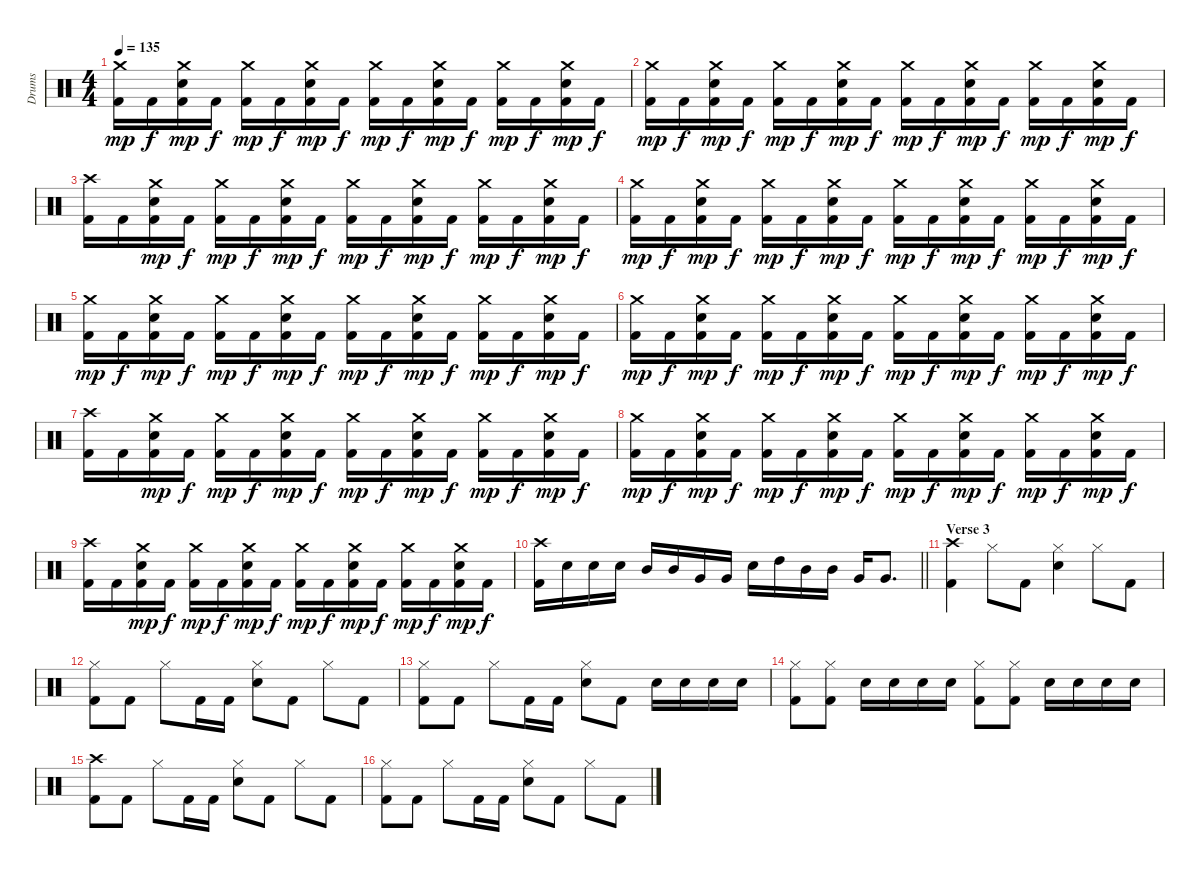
\track ("Drums" "Drums") {instrument percussion}
\staff {score}
\articulation defaults
\ts (4 4)
\tempo 135
\clef neutral
\ks c
("Crash medium (hit)" "Kick (hit) 2").16{dy mp} "Kick (hit) 2".16{dy f} ("Crash medium (hit)" "Snare (hit) 2" "Kick (hit) 2").16{dy mp} "Kick (hit) 2".16{dy f} ("Crash medium (hit)" "Kick (hit) 2").16{dy mp} "Kick (hit) 2".16{dy f} ("Crash medium (hit)" "Snare (hit) 2" "Kick (hit) 2").16{dy mp} "Kick (hit) 2".16{dy f} ("Crash medium (hit)" "Kick (hit) 2").16{dy mp} "Kick (hit) 2".16{dy f} ("Crash medium (hit)" "Snare (hit) 2" "Kick (hit) 2").16{dy mp} "Kick (hit) 2".16{dy f} ("Crash medium (hit)" "Kick (hit) 2").16{dy mp} "Kick (hit) 2".16{dy f} ("Crash medium (hit)" "Snare (hit) 2" "Kick (hit) 2").16{dy mp} "Kick (hit) 2".16{dy f} |
("Crash medium (hit)" "Kick (hit) 2").16{dy mp} "Kick (hit) 2".16{dy f} ("Crash medium (hit)" "Snare (hit) 2" "Kick (hit) 2").16{dy mp} "Kick (hit) 2".16{dy f} ("Crash medium (hit)" "Kick (hit) 2").16{dy mp} "Kick (hit) 2".16{dy f} ("Crash medium (hit)" "Snare (hit) 2" "Kick (hit) 2").16{dy mp} "Kick (hit) 2".16{dy f} ("Crash medium (hit)" "Kick (hit) 2").16{dy mp} "Kick (hit) 2".16{dy f} ("Crash medium (hit)" "Snare (hit) 2" "Kick (hit) 2").16{dy mp} "Kick (hit) 2".16{dy f} ("Crash medium (hit)" "Kick (hit) 2").16{dy mp} "Kick (hit) 2".16{dy f} ("Crash medium (hit)" "Snare (hit) 2" "Kick (hit) 2").16{dy mp} "Kick (hit) 2".16{dy f} |
("Crash high (hit)" "Kick (hit) 2").16 "Kick (hit) 2".16 ("Crash medium (hit)" "Snare (hit) 2" "Kick (hit) 2").16{dy mp} "Kick (hit) 2".16{dy f} ("Crash medium (hit)" "Kick (hit) 2").16{dy mp} "Kick (hit) 2".16{dy f} ("Crash medium (hit)" "Snare (hit) 2" "Kick (hit) 2").16{dy mp} "Kick (hit) 2".16{dy f} ("Crash medium (hit)" "Kick (hit) 2").16{dy mp} "Kick (hit) 2".16{dy f} ("Crash medium (hit)" "Snare (hit) 2" "Kick (hit) 2").16{dy mp} "Kick (hit) 2".16{dy f} ("Crash medium (hit)" "Kick (hit) 2").16{dy mp} "Kick (hit) 2".16{dy f} ("Crash medium (hit)" "Snare (hit) 2" "Kick (hit) 2").16{dy mp} "Kick (hit) 2".16{dy f} |
("Crash medium (hit)" "Kick (hit) 2").16{dy mp} "Kick (hit) 2".16{dy f} ("Crash medium (hit)" "Snare (hit) 2" "Kick (hit) 2").16{dy mp} "Kick (hit) 2".16{dy f} ("Crash medium (hit)" "Kick (hit) 2").16{dy mp} "Kick (hit) 2".16{dy f} ("Crash medium (hit)" "Snare (hit) 2" "Kick (hit) 2").16{dy mp} "Kick (hit) 2".16{dy f} ("Crash medium (hit)" "Kick (hit) 2").16{dy mp} "Kick (hit) 2".16{dy f} ("Crash medium (hit)" "Snare (hit) 2" "Kick (hit) 2").16{dy mp} "Kick (hit) 2".16{dy f} ("Crash medium (hit)" "Kick (hit) 2").16{dy mp} "Kick (hit) 2".16{dy f} ("Crash medium (hit)" "Snare (hit) 2" "Kick (hit) 2").16{dy mp} "Kick (hit) 2".16{dy f} |
("Crash medium (hit)" "Kick (hit) 2").16{dy mp} "Kick (hit) 2".16{dy f} ("Crash medium (hit)" "Snare (hit) 2" "Kick (hit) 2").16{dy mp} "Kick (hit) 2".16{dy f} ("Crash medium (hit)" "Kick (hit) 2").16{dy mp} "Kick (hit) 2".16{dy f} ("Crash medium (hit)" "Snare (hit) 2" "Kick (hit) 2").16{dy mp} "Kick (hit) 2".16{dy f} ("Crash medium (hit)" "Kick (hit) 2").16{dy mp} "Kick (hit) 2".16{dy f} ("Crash medium (hit)" "Snare (hit) 2" "Kick (hit) 2").16{dy mp} "Kick (hit) 2".16{dy f} ("Crash medium (hit)" "Kick (hit) 2").16{dy mp} "Kick (hit) 2".16{dy f} ("Crash medium (hit)" "Snare (hit) 2" "Kick (hit) 2").16{dy mp} "Kick (hit) 2".16{dy f} |
("Crash medium (hit)" "Kick (hit) 2").16{dy mp} "Kick (hit) 2".16{dy f} ("Crash medium (hit)" "Snare (hit) 2" "Kick (hit) 2").16{dy mp} "Kick (hit) 2".16{dy f} ("Crash medium (hit)" "Kick (hit) 2").16{dy mp} "Kick (hit) 2".16{dy f} ("Crash medium (hit)" "Snare (hit) 2" "Kick (hit) 2").16{dy mp} "Kick (hit) 2".16{dy f} ("Crash medium (hit)" "Kick (hit) 2").16{dy mp} "Kick (hit) 2".16{dy f} ("Crash medium (hit)" "Snare (hit) 2" "Kick (hit) 2").16{dy mp} "Kick (hit) 2".16{dy f} ("Crash medium (hit)" "Kick (hit) 2").16{dy mp} "Kick (hit) 2".16{dy f} ("Crash medium (hit)" "Snare (hit) 2" "Kick (hit) 2").16{dy mp} "Kick (hit) 2".16{dy f} |
("Crash high (hit)" "Kick (hit) 2").16 "Kick (hit) 2".16 ("Crash medium (hit)" "Snare (hit) 2" "Kick (hit) 2").16{dy mp} "Kick (hit) 2".16{dy f} ("Crash medium (hit)" "Kick (hit) 2").16{dy mp} "Kick (hit) 2".16{dy f} ("Crash medium (hit)" "Snare (hit) 2" "Kick (hit) 2").16{dy mp} "Kick (hit) 2".16{dy f} ("Crash medium (hit)" "Kick (hit) 2").16{dy mp} "Kick (hit) 2".16{dy f} ("Crash medium (hit)" "Snare (hit) 2" "Kick (hit) 2").16{dy mp} "Kick (hit) 2".16{dy f} ("Crash medium (hit)" "Kick (hit) 2").16{dy mp} "Kick (hit) 2".16{dy f} ("Crash medium (hit)" "Snare (hit) 2" "Kick (hit) 2").16{dy mp} "Kick (hit) 2".16{dy f} |
("Crash medium (hit)" "Kick (hit) 2").16{dy mp} "Kick (hit) 2".16{dy f} ("Crash medium (hit)" "Snare (hit) 2" "Kick (hit) 2").16{dy mp} "Kick (hit) 2".16{dy f} ("Crash medium (hit)" "Kick (hit) 2").16{dy mp} "Kick (hit) 2".16{dy f} ("Crash medium (hit)" "Snare (hit) 2" "Kick (hit) 2").16{dy mp} "Kick (hit) 2".16{dy f} ("Crash medium (hit)" "Kick (hit) 2").16{dy mp} "Kick (hit) 2".16{dy f} ("Crash medium (hit)" "Snare (hit) 2" "Kick (hit) 2").16{dy mp} "Kick (hit) 2".16{dy f} ("Crash medium (hit)" "Kick (hit) 2").16{dy mp} "Kick (hit) 2".16{dy f} ("Crash medium (hit)" "Snare (hit) 2" "Kick (hit) 2").16{dy mp} "Kick (hit) 2".16{dy f} |
("Crash high (hit)" "Kick (hit) 2").16 "Kick (hit) 2".16 ("Crash medium (hit)" "Snare (hit) 2" "Kick (hit) 2").16{dy mp} "Kick (hit) 2".16{dy f} ("Crash medium (hit)" "Kick (hit) 2").16{dy mp} "Kick (hit) 2".16{dy f} ("Crash medium (hit)" "Snare (hit) 2" "Kick (hit) 2").16{dy mp} "Kick (hit) 2".16{dy f} ("Crash medium (hit)" "Kick (hit) 2").16{dy mp} "Kick (hit) 2".16{dy f} ("Crash medium (hit)" "Snare (hit) 2" "Kick (hit) 2").16{dy mp} "Kick (hit) 2".16{dy f} ("Crash medium (hit)" "Kick (hit) 2").16{dy mp} "Kick (hit) 2".16{dy f} ("Crash medium (hit)" "Snare (hit) 2" "Kick (hit) 2").16{dy mp} "Kick (hit) 2".16{dy f} |
\barLineRight lightlight
("Crash high (hit)" "Kick (hit) 2").16 "Snare (hit) 2".16 "Snare (hit) 2".16 "Snare (hit) 2".16 "Mid Tom (hit)".16 "Mid Tom (hit)".16 "Very Low Tom (hit)".16 "Very Low Tom (hit)".16 "Snare (hit) 2".16 "High Tom (hit)".16 "Mid Tom (hit)".16 "Mid Tom (hit)".16 "Very Low Tom (hit)".16 "Very Low Tom (hit)".8{d} |
\section ("" "Verse 3")
("Crash high (hit)" "Kick (hit) 2").4 "Hi-Hat (closed)".8 "Kick (hit) 2".8 ("Hi-Hat (closed)" "Snare (hit) 2").4 "Hi-Hat (closed)".8 "Kick (hit) 2".8 |
("Hi-Hat (closed)" "Kick (hit) 2").8 "Kick (hit) 2".8 "Hi-Hat (closed)".8 "Kick (hit) 2".16 "Kick (hit) 2".16 ("Hi-Hat (closed)" "Snare (hit) 2").8 "Kick (hit) 2".8 "Hi-Hat (closed)".8 "Kick (hit) 2".8 |
("Hi-Hat (closed)" "Kick (hit) 2").8 "Kick (hit) 2".8 "Hi-Hat (closed)".8 "Kick (hit) 2".16 "Kick (hit) 2".16 ("Hi-Hat (closed)" "Snare (hit) 2").8 "Kick (hit) 2".8 "Snare (hit) 2".16 "Snare (hit) 2".16 "Snare (hit) 2".16 "Snare (hit) 2".16 |
("Hi-Hat (closed)" "Kick (hit) 2").8 ("Hi-Hat (closed)" "Kick (hit) 2").8 "Snare (hit) 2".16 "Snare (hit) 2".16 "Snare (hit) 2".16 "Snare (hit) 2".16 ("Hi-Hat (closed)" "Kick (hit) 2").8 ("Hi-Hat (closed)" "Kick (hit) 2").8 "Snare (hit) 2".16 "Snare (hit) 2".16 "Snare (hit) 2".16 "Snare (hit) 2".16 |
("Crash high (hit)" "Kick (hit) 2").8 "Kick (hit) 2".8 "Hi-Hat (closed)".8 "Kick (hit) 2".16 "Kick (hit) 2".16 ("Hi-Hat (closed)" "Snare (hit) 2").8 "Kick (hit) 2".8 "Hi-Hat (closed)".8 "Kick (hit) 2".8 |
("Hi-Hat (closed)" "Kick (hit) 2").8 "Kick (hit) 2".8 "Hi-Hat (closed)".8 "Kick (hit) 2".16 "Kick (hit) 2".16 ("Hi-Hat (closed)" "Snare (hit) 2").8 "Kick (hit) 2".8 "Hi-Hat (closed)".8 "Kick (hit) 2".8
